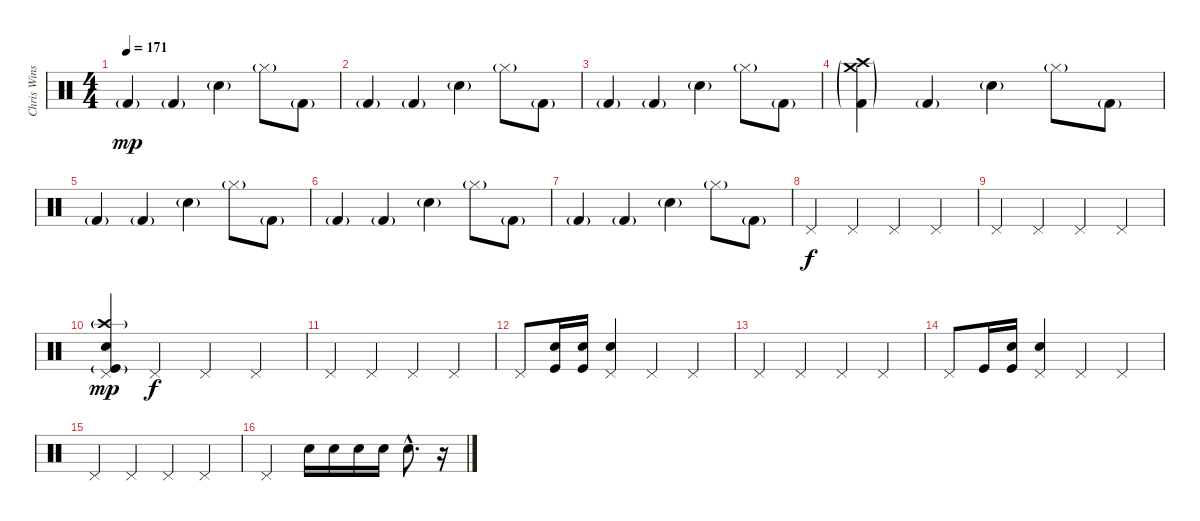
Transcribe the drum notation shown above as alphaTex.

\track ("Chris Winship (Drums)" "Chris Wins") {instrument percussion}
\staff {score}
\articulation defaults
\ts (4 4)
\tempo 171
\clef neutral
\ks c "Kick (hit) 2"{g}.4{dy mp} "Kick (hit) 2"{g}.4 "Snare (hit) 2"{g}.4 "Hi-Hat (closed)"{g}.8 "Kick (hit) 2"{g}.8
|
"Kick (hit) 2"{g}.4 "Kick (hit) 2"{g}.4 "Snare (hit) 2"{g}.4 "Hi-Hat (closed)"{g}.8 "Kick (hit) 2"{g}.8 |
"Kick (hit) 2"{g}.4 "Kick (hit) 2"{g}.4 "Snare (hit) 2"{g}.4 "Hi-Hat (closed)"{g}.8 "Kick (hit) 2"{g}.8 |
("Crash medium (hit)"{g} "Crash high (hit)"{g} "Kick (hit) 2"{g}).4 "Kick (hit) 2"{g}.4 "Snare (hit) 2"{g}.4 "Hi-Hat (closed)"{g}.8 "Kick (hit) 2"{g}.8 |
"Kick (hit) 2"{g}.4 "Kick (hit) 2"{g}.4 "Snare (hit) 2"{g}.4 "Hi-Hat (closed)"{g}.8 "Kick (hit) 2"{g}.8 |
"Kick (hit) 2"{g}.4 "Kick (hit) 2"{g}.4 "Snare (hit) 2"{g}.4 "Hi-Hat (closed)"{g}.8 "Kick (hit) 2"{g}.8 |
"Kick (hit) 2"{g}.4 "Kick (hit) 2"{g}.4 "Snare (hit) 2"{g}.4 "Hi-Hat (closed)"{g}.8 "Kick (hit) 2"{g}.8 |
"Pedal Hi-Hat (hit)".4{dy f} "Pedal Hi-Hat (hit)".4 "Pedal Hi-Hat (hit)".4 "Pedal Hi-Hat (hit)".4 |
"Pedal Hi-Hat (hit)".4 "Pedal Hi-Hat (hit)".4 "Pedal Hi-Hat (hit)".4 "Pedal Hi-Hat (hit)".4 |
("Kick (hit)"{g} "Snare (hit) 2" "Pedal Hi-Hat (hit)" "Crash high (hit)"{g}).4{dy mp} "Pedal Hi-Hat (hit)".4{dy f} "Pedal Hi-Hat (hit)".4 "Pedal Hi-Hat (hit)".4 |
"Pedal Hi-Hat (hit)".4 "Pedal Hi-Hat (hit)".4 "Pedal Hi-Hat (hit)".4 "Pedal Hi-Hat (hit)".4 |
"Pedal Hi-Hat (hit)".8 ("Kick (hit)" "Snare (hit) 2").16 ("Kick (hit)" "Snare (hit) 2").16 ("Pedal Hi-Hat (hit)" "Snare (hit) 2").4 "Pedal Hi-Hat (hit)".4 "Pedal Hi-Hat (hit)".4 |
"Pedal Hi-Hat (hit)".4 "Pedal Hi-Hat (hit)".4 "Pedal Hi-Hat (hit)".4 "Pedal Hi-Hat (hit)".4 |
"Pedal Hi-Hat (hit)".8 "Kick (hit)".16 ("Kick (hit)" "Snare (hit) 2").16 ("Pedal Hi-Hat (hit)" "Snare (hit) 2").4 "Pedal Hi-Hat (hit)".4 "Pedal Hi-Hat (hit)".4 |
"Pedal Hi-Hat (hit)".4 "Pedal Hi-Hat (hit)".4 "Pedal Hi-Hat (hit)".4 "Pedal Hi-Hat (hit)".4 |
"Pedal Hi-Hat (hit)".2 "Snare (hit) 2".16 "Snare (hit) 2".16 "Snare (hit) 2".16 "Snare (hit) 2".16 "Snare (hit) 2"{hac}.8{d} r.16
